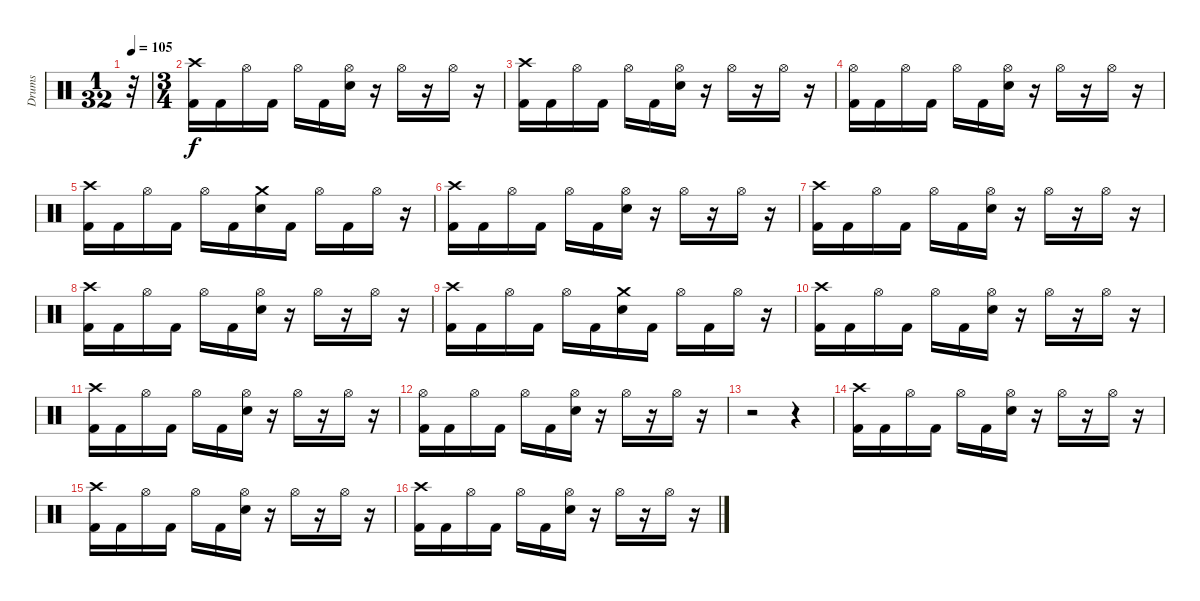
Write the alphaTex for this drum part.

\track ("Drums" "Drums") {instrument percussion}
\staff {score}
\articulation defaults
\ts (1 32)
\tempo 105
\clef neutral
\ks c
r.32{dy f} |
\ts (3 4)
("Crash high (hit)" "Kick (hit) 2").16 "Kick (hit) 2".16 "Hi-Hat (open)".16 "Kick (hit) 2".16 "Hi-Hat (open)".16 "Kick (hit) 2".16 ("Hi-Hat (open)" "Electric Snare (hit)").16 r.16 "Hi-Hat (open)".16 r.16 "Hi-Hat (open)".16 r.16 |
("Crash high (hit)" "Kick (hit) 2").16 "Kick (hit) 2".16 "Hi-Hat (open)".16 "Kick (hit) 2".16 "Hi-Hat (open)".16 "Kick (hit) 2".16 ("Hi-Hat (open)" "Electric Snare (hit)").16 r.16 "Hi-Hat (open)".16 r.16 "Hi-Hat (open)".16 r.16 |
("Hi-Hat (open)" "Kick (hit) 2").16 "Kick (hit) 2".16 "Hi-Hat (open)".16 "Kick (hit) 2".16 "Hi-Hat (open)".16 "Kick (hit) 2".16 ("Hi-Hat (open)" "Electric Snare (hit)").16 r.16 "Hi-Hat (open)".16 r.16 "Hi-Hat (open)".16 r.16 |
("Crash high (hit)" "Kick (hit) 2").16 "Kick (hit) 2".16 "Hi-Hat (open)".16 "Kick (hit) 2".16 "Hi-Hat (open)".16 "Kick (hit) 2".16 ("Crash medium (hit)" "Electric Snare (hit)").16 "Kick (hit) 2".16 "Hi-Hat (open)".16 "Kick (hit) 2".16 "Hi-Hat (open)".16 r.16 |
("Crash high (hit)" "Kick (hit) 2").16 "Kick (hit) 2".16 "Hi-Hat (open)".16 "Kick (hit) 2".16 "Hi-Hat (open)".16 "Kick (hit) 2".16 ("Hi-Hat (open)" "Electric Snare (hit)").16 r.16 "Hi-Hat (open)".16 r.16 "Hi-Hat (open)".16 r.16 |
("Crash high (hit)" "Kick (hit) 2").16 "Kick (hit) 2".16 "Hi-Hat (open)".16 "Kick (hit) 2".16 "Hi-Hat (open)".16 "Kick (hit) 2".16 ("Hi-Hat (open)" "Electric Snare (hit)").16 r.16 "Hi-Hat (open)".16 r.16 "Hi-Hat (open)".16 r.16 |
("Crash high (hit)" "Kick (hit) 2").16 "Kick (hit) 2".16 "Hi-Hat (open)".16 "Kick (hit) 2".16 "Hi-Hat (open)".16 "Kick (hit) 2".16 ("Hi-Hat (open)" "Electric Snare (hit)").16 r.16 "Hi-Hat (open)".16 r.16 "Hi-Hat (open)".16 r.16 |
("Crash high (hit)" "Kick (hit) 2").16 "Kick (hit) 2".16 "Hi-Hat (open)".16 "Kick (hit) 2".16 "Hi-Hat (open)".16 "Kick (hit) 2".16 ("Crash medium (hit)" "Electric Snare (hit)").16 "Kick (hit) 2".16 "Hi-Hat (open)".16 "Kick (hit) 2".16 "Hi-Hat (open)".16 r.16 |
("Crash high (hit)" "Kick (hit) 2").16 "Kick (hit) 2".16 "Hi-Hat (open)".16 "Kick (hit) 2".16 "Hi-Hat (open)".16 "Kick (hit) 2".16 ("Hi-Hat (open)" "Electric Snare (hit)").16 r.16 "Hi-Hat (open)".16 r.16 "Hi-Hat (open)".16 r.16 |
("Crash high (hit)" "Kick (hit) 2").16 "Kick (hit) 2".16 "Hi-Hat (open)".16 "Kick (hit) 2".16 "Hi-Hat (open)".16 "Kick (hit) 2".16 ("Hi-Hat (open)" "Electric Snare (hit)").16 r.16 "Hi-Hat (open)".16 r.16 "Hi-Hat (open)".16 r.16 |
("Hi-Hat (open)" "Kick (hit) 2").16 "Kick (hit) 2".16 "Hi-Hat (open)".16 "Kick (hit) 2".16 "Hi-Hat (open)".16 "Kick (hit) 2".16 ("Hi-Hat (open)" "Electric Snare (hit)").16 r.16 "Hi-Hat (open)".16 r.16 "Hi-Hat (open)".16 r.16 |
r.2 r.4 |
("Crash high (hit)" "Kick (hit) 2").16 "Kick (hit) 2".16 "Hi-Hat (open)".16 "Kick (hit) 2".16 "Hi-Hat (open)".16 "Kick (hit) 2".16 ("Hi-Hat (open)" "Electric Snare (hit)").16 r.16 "Hi-Hat (open)".16 r.16 "Hi-Hat (open)".16 r.16 |
("Crash high (hit)" "Kick (hit) 2").16 "Kick (hit) 2".16 "Hi-Hat (open)".16 "Kick (hit) 2".16 "Hi-Hat (open)".16 "Kick (hit) 2".16 ("Hi-Hat (open)" "Electric Snare (hit)").16 r.16 "Hi-Hat (open)".16 r.16 "Hi-Hat (open)".16 r.16 |
("Crash high (hit)" "Kick (hit) 2").16 "Kick (hit) 2".16 "Hi-Hat (open)".16 "Kick (hit) 2".16 "Hi-Hat (open)".16 "Kick (hit) 2".16 ("Hi-Hat (open)" "Electric Snare (hit)").16 r.16 "Hi-Hat (open)".16 r.16 "Hi-Hat (open)".16 r.16
